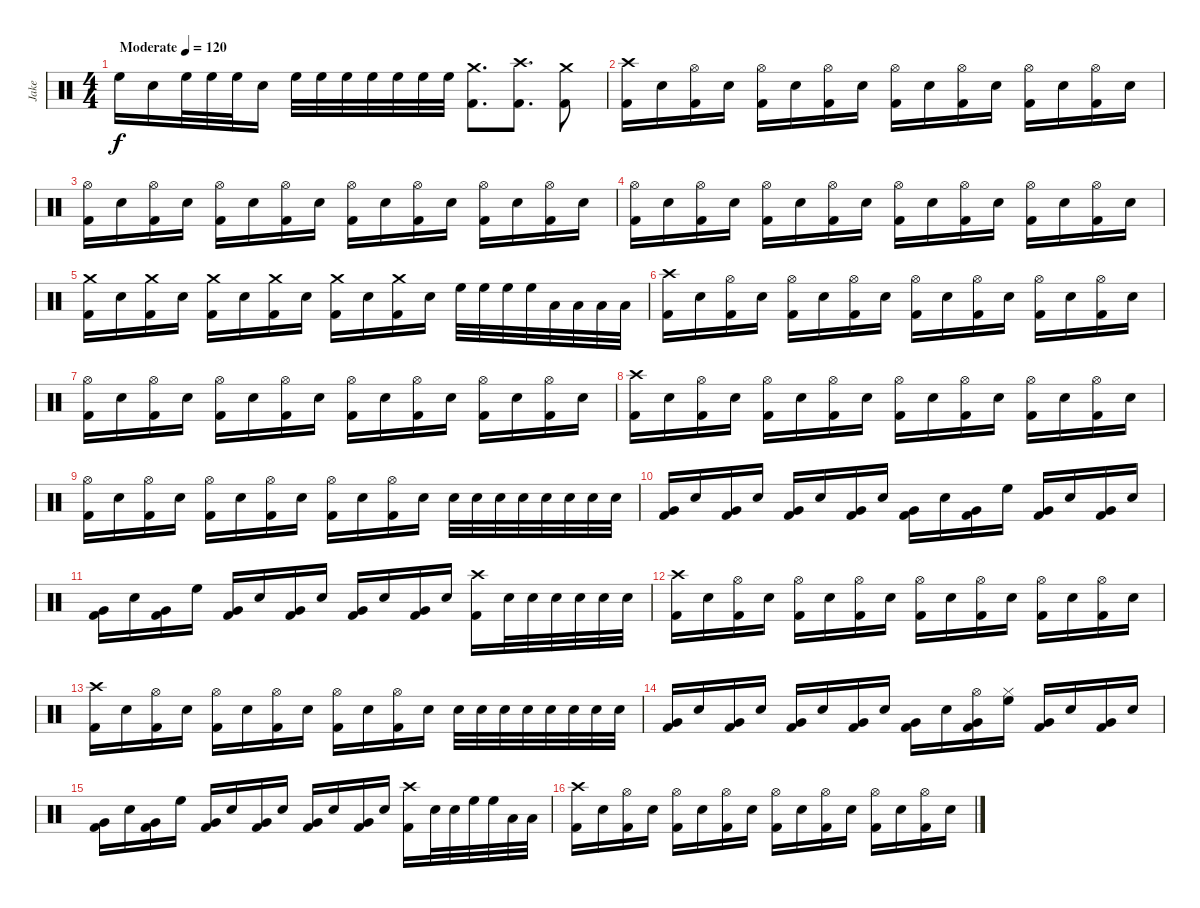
\track ("Jake" "Jake") {instrument percussion}
\staff {score}
\articulation defaults
\ts (4 4)
\tempo (120 "Moderate")
\clef neutral
\ks c "High Floor Tom (hit)".16{dy f} "Snare (hit) 2".16 "High Floor Tom (hit)".32 "High Floor Tom (hit)".32 "High Floor Tom (hit)".32 "Snare (hit) 2".16 "High Floor Tom (hit)".32 "High Floor Tom (hit)".32 "High Floor Tom (hit)".32 "High Floor Tom (hit)".32 "High Floor Tom (hit)".32 "High Floor Tom (hit)".32 "High Floor Tom (hit)".32
("Crash medium (hit)" "Kick (hit) 2").8{d} ("Crash high (hit)" "Kick (hit) 2").8{d} ("Crash medium (hit)" "Kick (hit) 2").8 |
("Crash high (hit)" "Kick (hit) 2").16 "Snare (hit) 2".16 ("Hi-Hat (open)" "Kick (hit) 2").16 "Snare (hit) 2".16 ("Hi-Hat (open)" "Kick (hit) 2").16 "Snare (hit) 2".16 ("Hi-Hat (open)" "Kick (hit) 2").16 "Snare (hit) 2".16 ("Hi-Hat (open)" "Kick (hit) 2").16 "Snare (hit) 2".16 ("Hi-Hat (open)" "Kick (hit) 2").16 "Snare (hit) 2".16 ("Hi-Hat (open)" "Kick (hit) 2").16 "Snare (hit) 2".16 ("Hi-Hat (open)" "Kick (hit) 2").16 "Snare (hit) 2".16 |
("Hi-Hat (open)" "Kick (hit) 2").16 "Snare (hit) 2".16 ("Hi-Hat (open)" "Kick (hit) 2").16 "Snare (hit) 2".16 ("Hi-Hat (open)" "Kick (hit) 2").16 "Snare (hit) 2".16 ("Hi-Hat (open)" "Kick (hit) 2").16 "Snare (hit) 2".16 ("Hi-Hat (open)" "Kick (hit) 2").16 "Snare (hit) 2".16 ("Hi-Hat (open)" "Kick (hit) 2").16 "Snare (hit) 2".16 ("Hi-Hat (open)" "Kick (hit) 2").16 "Snare (hit) 2".16 ("Hi-Hat (open)" "Kick (hit) 2").16 "Snare (hit) 2".16 |
("Hi-Hat (open)" "Kick (hit) 2").16 "Snare (hit) 2".16 ("Hi-Hat (open)" "Kick (hit) 2").16 "Snare (hit) 2".16 ("Hi-Hat (open)" "Kick (hit) 2").16 "Snare (hit) 2".16 ("Hi-Hat (open)" "Kick (hit) 2").16 "Snare (hit) 2".16 ("Hi-Hat (open)" "Kick (hit) 2").16 "Snare (hit) 2".16 ("Hi-Hat (open)" "Kick (hit) 2").16 "Snare (hit) 2".16 ("Hi-Hat (open)" "Kick (hit) 2").16 "Snare (hit) 2".16 ("Hi-Hat (open)" "Kick (hit) 2").16 "Snare (hit) 2".16 |
("Crash medium (hit)" "Kick (hit) 2").16 "Snare (hit) 2".16 ("Crash medium (hit)" "Kick (hit) 2").16 "Snare (hit) 2".16 ("Crash medium (hit)" "Kick (hit) 2").16 "Snare (hit) 2".16 ("Crash medium (hit)" "Kick (hit) 2").16 "Snare (hit) 2".16 ("Crash medium (hit)" "Kick (hit) 2").16 "Snare (hit) 2".16 ("Crash medium (hit)" "Kick (hit) 2").16 "Snare (hit) 2".16 "High Floor Tom (hit)".32 "High Floor Tom (hit)".32 "High Floor Tom (hit)".32 "High Floor Tom (hit)".32 "Low Tom (hit)".32 "Low Tom (hit)".32 "Low Tom (hit)".32 "Low Tom (hit)".32 |
("Crash high (hit)" "Kick (hit) 2").16 "Snare (hit) 2".16 ("Hi-Hat (open)" "Kick (hit) 2").16 "Snare (hit) 2".16 ("Hi-Hat (open)" "Kick (hit) 2").16 "Snare (hit) 2".16 ("Hi-Hat (open)" "Kick (hit) 2").16 "Snare (hit) 2".16 ("Hi-Hat (open)" "Kick (hit) 2").16 "Snare (hit) 2".16 ("Hi-Hat (open)" "Kick (hit) 2").16 "Snare (hit) 2".16 ("Hi-Hat (open)" "Kick (hit) 2").16 "Snare (hit) 2".16 ("Hi-Hat (open)" "Kick (hit) 2").16 "Snare (hit) 2".16 |
("Hi-Hat (open)" "Kick (hit) 2").16 "Snare (hit) 2".16 ("Hi-Hat (open)" "Kick (hit) 2").16 "Snare (hit) 2".16 ("Hi-Hat (open)" "Kick (hit) 2").16 "Snare (hit) 2".16 ("Hi-Hat (open)" "Kick (hit) 2").16 "Snare (hit) 2".16 ("Hi-Hat (open)" "Kick (hit) 2").16 "Snare (hit) 2".16 ("Hi-Hat (open)" "Kick (hit) 2").16 "Snare (hit) 2".16 ("Hi-Hat (open)" "Kick (hit) 2").16 "Snare (hit) 2".16 ("Hi-Hat (open)" "Kick (hit) 2").16 "Snare (hit) 2".16 |
("Crash high (hit)" "Kick (hit) 2").16 "Snare (hit) 2".16 ("Hi-Hat (open)" "Kick (hit) 2").16 "Snare (hit) 2".16 ("Hi-Hat (open)" "Kick (hit) 2").16 "Snare (hit) 2".16 ("Hi-Hat (open)" "Kick (hit) 2").16 "Snare (hit) 2".16 ("Hi-Hat (open)" "Kick (hit) 2").16 "Snare (hit) 2".16 ("Hi-Hat (open)" "Kick (hit) 2").16 "Snare (hit) 2".16 ("Hi-Hat (open)" "Kick (hit) 2").16 "Snare (hit) 2".16 ("Hi-Hat (open)" "Kick (hit) 2").16 "Snare (hit) 2".16 |
("Hi-Hat (open)" "Kick (hit) 2").16 "Snare (hit) 2".16 ("Hi-Hat (open)" "Kick (hit) 2").16 "Snare (hit) 2".16 ("Hi-Hat (open)" "Kick (hit) 2").16 "Snare (hit) 2".16 ("Hi-Hat (open)" "Kick (hit) 2").16 "Snare (hit) 2".16 ("Hi-Hat (open)" "Kick (hit) 2").16 "Snare (hit) 2".16 ("Hi-Hat (open)" "Kick (hit) 2").16 "Snare (hit) 2".16 "Snare (hit) 2".32 "Snare (hit) 2".32 "Snare (hit) 2".32 "Snare (hit) 2".32 "Snare (hit) 2".32 "Snare (hit) 2".32 "Snare (hit) 2".32 "Snare (hit) 2".32 |
("Very Low Tom (hit)" "Kick (hit) 2").16 "Snare (hit) 2".16 ("Very Low Tom (hit)" "Kick (hit) 2").16 "Snare (hit) 2".16 ("Very Low Tom (hit)" "Kick (hit) 2").16 "Snare (hit) 2".16 ("Very Low Tom (hit)" "Kick (hit) 2").16 "Snare (hit) 2".16 ("Very Low Tom (hit)" "Kick (hit) 2").16 "Snare (hit) 2".16 ("Very Low Tom (hit)" "Kick (hit) 2").16 "High Floor Tom (hit)".16 ("Very Low Tom (hit)" "Kick (hit) 2").16 "Snare (hit) 2".16 ("Very Low Tom (hit)" "Kick (hit) 2").16 "Snare (hit) 2".16 |
("Very Low Tom (hit)" "Kick (hit) 2").16 "Snare (hit) 2".16 ("Very Low Tom (hit)" "Kick (hit) 2").16 "High Floor Tom (hit)".16 ("Very Low Tom (hit)" "Kick (hit) 2").16 "Snare (hit) 2".16 ("Very Low Tom (hit)" "Kick (hit) 2").16 "Snare (hit) 2".16 ("Very Low Tom (hit)" "Kick (hit) 2").16 "Snare (hit) 2".16 ("Very Low Tom (hit)" "Kick (hit) 2").16 "Snare (hit) 2".16 ("Crash high (hit)" "Kick (hit) 2").16 "Snare (hit) 2".32 "Snare (hit) 2".32 "Snare (hit) 2".32 "Snare (hit) 2".32 "Snare (hit) 2".32 "Snare (hit) 2".32 |
("Crash high (hit)" "Kick (hit) 2").16 "Snare (hit) 2".16 ("Hi-Hat (open)" "Kick (hit) 2").16 "Snare (hit) 2".16 ("Hi-Hat (open)" "Kick (hit) 2").16 "Snare (hit) 2".16 ("Hi-Hat (open)" "Kick (hit) 2").16 "Snare (hit) 2".16 ("Hi-Hat (open)" "Kick (hit) 2").16 "Snare (hit) 2".16 ("Hi-Hat (open)" "Kick (hit) 2").16 "Snare (hit) 2".16 ("Hi-Hat (open)" "Kick (hit) 2").16 "Snare (hit) 2".16 ("Hi-Hat (open)" "Kick (hit) 2").16 "Snare (hit) 2".16 |
("Crash high (hit)" "Kick (hit) 2").16 "Snare (hit) 2".16 ("Hi-Hat (open)" "Kick (hit) 2").16 "Snare (hit) 2".16 ("Hi-Hat (open)" "Kick (hit) 2").16 "Snare (hit) 2".16 ("Hi-Hat (open)" "Kick (hit) 2").16 "Snare (hit) 2".16 ("Hi-Hat (open)" "Kick (hit) 2").16 "Snare (hit) 2".16 ("Hi-Hat (open)" "Kick (hit) 2").16 "Snare (hit) 2".16 "Snare (hit) 2".32 "Snare (hit) 2".32 "Snare (hit) 2".32 "Snare (hit) 2".32 "Snare (hit) 2".32 "Snare (hit) 2".32 "Snare (hit) 2".32 "Snare (hit) 2".32 |
("Very Low Tom (hit)" "Kick (hit) 2").16 "Snare (hit) 2".16 ("Very Low Tom (hit)" "Kick (hit) 2").16 "Snare (hit) 2".16 ("Very Low Tom (hit)" "Kick (hit) 2").16 "Snare (hit) 2".16 ("Very Low Tom (hit)" "Kick (hit) 2").16 "Snare (hit) 2".16 ("Very Low Tom (hit)" "Kick (hit) 2").16 "Snare (hit) 2".16 ("Hi-Hat (open)" "Very Low Tom (hit)" "Kick (hit) 2").16 ("Hi-Hat (closed)" "High Floor Tom (hit)").16 ("Very Low Tom (hit)" "Kick (hit) 2").16 "Snare (hit) 2".16 ("Very Low Tom (hit)" "Kick (hit) 2").16 "Snare (hit) 2".16 |
("Very Low Tom (hit)" "Kick (hit) 2").16 "Snare (hit) 2".16 ("Very Low Tom (hit)" "Kick (hit) 2").16 "High Floor Tom (hit)".16 ("Very Low Tom (hit)" "Kick (hit) 2").16 "Snare (hit) 2".16 ("Very Low Tom (hit)" "Kick (hit) 2").16 "Snare (hit) 2".16 ("Very Low Tom (hit)" "Kick (hit) 2").16 "Snare (hit) 2".16 ("Very Low Tom (hit)" "Kick (hit) 2").16 "Snare (hit) 2".16 ("Crash high (hit)" "Kick (hit) 2").16 "Snare (hit) 2".32 "Snare (hit) 2".32 "High Floor Tom (hit)".32 "High Floor Tom (hit)".32 "Low Tom (hit)".32 "Low Tom (hit)".32 |
("Crash high (hit)" "Kick (hit) 2").16 "Snare (hit) 2".16 ("Hi-Hat (open)" "Kick (hit) 2").16 "Snare (hit) 2".16 ("Hi-Hat (open)" "Kick (hit) 2").16 "Snare (hit) 2".16 ("Hi-Hat (open)" "Kick (hit) 2").16 "Snare (hit) 2".16 ("Hi-Hat (open)" "Kick (hit) 2").16 "Snare (hit) 2".16 ("Hi-Hat (open)" "Kick (hit) 2").16 "Snare (hit) 2".16 ("Hi-Hat (open)" "Kick (hit) 2").16 "Snare (hit) 2".16 ("Hi-Hat (open)" "Kick (hit) 2").16 "Snare (hit) 2".16
